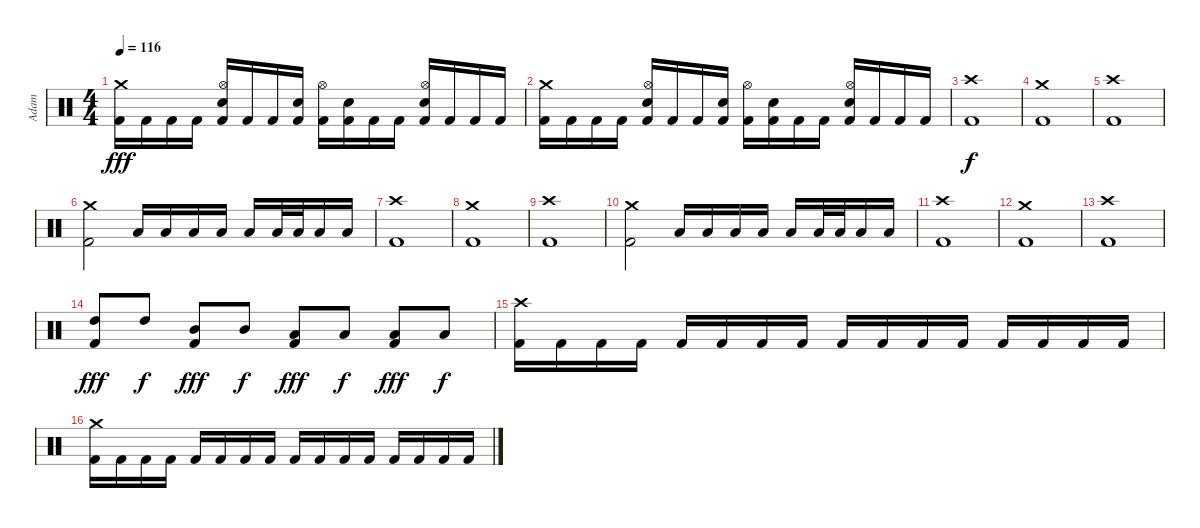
\track ("Adam" "Adam") {instrument percussion}
\staff {score}
\articulation defaults
\ts (4 4)
\tempo 116
\clef neutral
\ks c
("Crash medium (hit)" "Kick (hit) 2").16{dy fff} "Kick (hit) 2".16 "Kick (hit) 2".16 "Kick (hit) 2".16 ("Hi-Hat (open)" "Electric Snare (hit)" "Kick (hit) 2").16 "Kick (hit) 2".16 "Kick (hit) 2".16 ("Electric Snare (hit)" "Kick (hit) 2").16 ("Hi-Hat (open)" "Kick (hit) 2").16 ("Electric Snare (hit)" "Kick (hit) 2").16 "Kick (hit) 2".16 "Kick (hit) 2".16 ("Hi-Hat (open)" "Electric Snare (hit)" "Kick (hit) 2").16 "Kick (hit) 2".16 "Kick (hit) 2".16 "Kick (hit) 2".16 |
("Crash medium (hit)" "Kick (hit) 2").16 "Kick (hit) 2".16 "Kick (hit) 2".16 "Kick (hit) 2".16 ("Hi-Hat (open)" "Electric Snare (hit)" "Kick (hit) 2").16 "Kick (hit) 2".16 "Kick (hit) 2".16 ("Electric Snare (hit)" "Kick (hit) 2").16 ("Hi-Hat (open)" "Kick (hit) 2").16 ("Electric Snare (hit)" "Kick (hit) 2").16 "Kick (hit) 2".16 "Kick (hit) 2".16 ("Hi-Hat (open)" "Electric Snare (hit)" "Kick (hit) 2").16 "Kick (hit) 2".16 "Kick (hit) 2".16 "Kick (hit) 2".16 |
("Crash high (hit)" "Kick (hit) 2").1{dy f} |
("Crash medium (hit)" "Kick (hit) 2").1 |
("Crash high (hit)" "Kick (hit) 2").1 |
("Crash medium (hit)" "Kick (hit) 2").2 "Low Tom (hit)".16 "Low Tom (hit)".16 "Low Tom (hit)".16 "Low Tom (hit)".16 "Low Floor Tom (hit)".16 "Low Floor Tom (hit)".32 "Low Floor Tom (hit)".32 "Low Floor Tom (hit)".16 "Low Floor Tom (hit)".16 |
("Crash high (hit)" "Kick (hit) 2").1 |
("Crash medium (hit)" "Kick (hit) 2").1 |
("Crash high (hit)" "Kick (hit) 2").1 |
("Crash medium (hit)" "Kick (hit) 2").2 "Low Tom (hit)".16 "Low Tom (hit)".16 "Low Tom (hit)".16 "Low Tom (hit)".16 "Low Floor Tom (hit)".16 "Low Floor Tom (hit)".32 "Low Floor Tom (hit)".32 "Low Floor Tom (hit)".16 "Low Floor Tom (hit)".16 |
("Crash high (hit)" "Kick (hit) 2").1 |
("Crash medium (hit)" "Kick (hit) 2").1 |
("Crash high (hit)" "Kick (hit) 2").1 |
("High Tom (hit)" "Kick (hit) 2").8{dy fff} "High Tom (hit)".8{dy f} ("Mid Tom (hit)" "Kick (hit) 2").8{dy fff} "Mid Tom (hit)".8{dy f} ("Low Tom (hit)" "Kick (hit) 2").8{dy fff} "Low Tom (hit)".8{dy f} ("Low Floor Tom (hit)" "Kick (hit) 2").8{dy fff} "Low Floor Tom (hit)".8{dy f} |
("Crash high (hit)" "Kick (hit) 2").16 "Kick (hit) 2".16 "Kick (hit) 2".16 "Kick (hit) 2".16 "Kick (hit) 2".16 "Kick (hit) 2".16 "Kick (hit) 2".16 "Kick (hit) 2".16 "Kick (hit) 2".16 "Kick (hit) 2".16 "Kick (hit) 2".16 "Kick (hit) 2".16 "Kick (hit) 2".16 "Kick (hit) 2".16 "Kick (hit) 2".16 "Kick (hit) 2".16 |
("Crash medium (hit)" "Kick (hit) 2").16 "Kick (hit) 2".16 "Kick (hit) 2".16 "Kick (hit) 2".16 "Kick (hit) 2".16 "Kick (hit) 2".16 "Kick (hit) 2".16 "Kick (hit) 2".16 "Kick (hit) 2".16 "Kick (hit) 2".16 "Kick (hit) 2".16 "Kick (hit) 2".16 "Kick (hit) 2".16 "Kick (hit) 2".16 "Kick (hit) 2".16 "Kick (hit) 2".16
